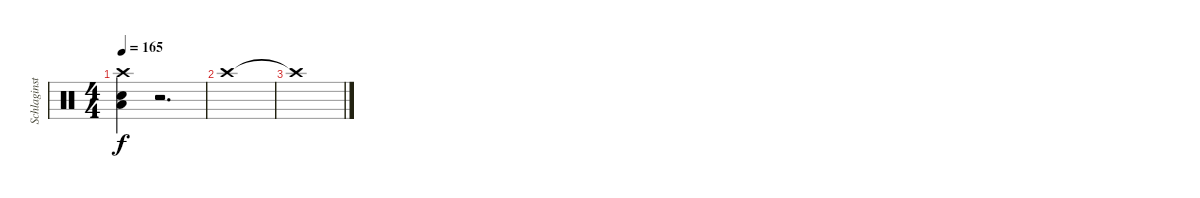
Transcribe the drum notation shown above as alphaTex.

\track ("Schlaginstrumente - Auswahl" "Schlaginst") {instrument percussion}
\staff {score}
\articulation defaults
\ts (4 4)
\tempo 165
\clef neutral
\ks c
("Snare (hit) 2" "Low Tom (hit)" "Crash high (hit)").4{dy f} r.2{d} |
"Crash high (hit)".1 |
"Crash high (hit)"{t}.1
